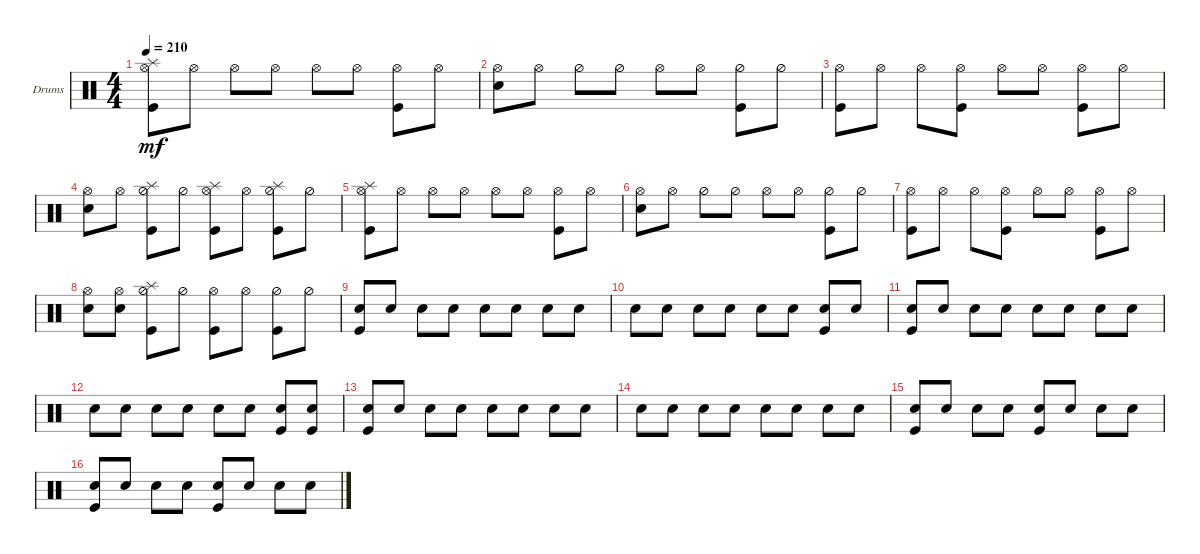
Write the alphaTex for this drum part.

\bracketExtendMode groupsimilarinstruments
\firstSystemTrackNameOrientation horizontal
\otherSystemsTrackNameOrientation horizontal
\track ("Drumkit" "Drums") {instrument percussion}
\staff {score}
\articulation defaults
\ts (4 4)
\tempo 210
\clef neutral
\ks c
("Kick (hit)" "Splash (hit)" "Hi-Hat (open)").8{dy mf} "Hi-Hat (open)".8 "Hi-Hat (open)".8 "Hi-Hat (open)".8 "Hi-Hat (open)".8 "Hi-Hat (open)".8 ("Kick (hit)" "Hi-Hat (open)").8 "Hi-Hat (open)".8 |
("Snare (hit) 2" "Hi-Hat (open)").8 "Hi-Hat (open)".8 "Hi-Hat (half)".8 "Hi-Hat (half)".8 "Hi-Hat (open)".8 "Hi-Hat (open)".8 ("Kick (hit)" "Hi-Hat (half)").8 "Hi-Hat (half)".8 |
("Kick (hit)" "Hi-Hat (open)").8 "Hi-Hat (open)".8 "Hi-Hat (open)".8 ("Kick (hit)" "Hi-Hat (open)").8 "Hi-Hat (open)".8 "Hi-Hat (open)".8 ("Kick (hit)" "Hi-Hat (open)").8 "Hi-Hat (open)".8 |
("Snare (hit) 2" "Hi-Hat (open)").8 "Hi-Hat (open)".8 ("Kick (hit)" "Splash (hit)" "Hi-Hat (half)").8 "Hi-Hat (half)".8 ("Kick (hit)" "Splash (hit)" "Hi-Hat (open)").8 "Hi-Hat (open)".8 ("Kick (hit)" "Splash (hit)" "Hi-Hat (half)").8 "Hi-Hat (half)".8 |
("Kick (hit)" "Splash (hit)" "Hi-Hat (open)").8 "Hi-Hat (open)".8 "Hi-Hat (open)".8 "Hi-Hat (open)".8 "Hi-Hat (open)".8 "Hi-Hat (open)".8 ("Kick (hit)" "Hi-Hat (open)").8 "Hi-Hat (open)".8 |
("Snare (hit) 2" "Hi-Hat (open)").8 "Hi-Hat (open)".8 "Hi-Hat (half)".8 "Hi-Hat (half)".8 "Hi-Hat (open)".8 "Hi-Hat (open)".8 ("Kick (hit)" "Hi-Hat (half)").8 "Hi-Hat (half)".8 |
("Kick (hit)" "Hi-Hat (open)").8 "Hi-Hat (open)".8 "Hi-Hat (open)".8 ("Kick (hit)" "Hi-Hat (open)").8 "Hi-Hat (open)".8 "Hi-Hat (open)".8 ("Kick (hit)" "Hi-Hat (open)").8 "Hi-Hat (open)".8 |
("Snare (hit) 2" "Hi-Hat (open)").8 ("Snare (hit) 2" "Hi-Hat (open)").8 ("Kick (hit)" "Splash (hit)" "Hi-Hat (half)").8 "Hi-Hat (half)".8 ("Kick (hit)" "Hi-Hat (open)").8 "Hi-Hat (open)".8 ("Kick (hit)" "Hi-Hat (half)").8 "Hi-Hat (half)".8 |
("Kick (hit)" "Snare (hit) 2").8 "Snare (hit) 2".8 "Snare (hit) 2".8 "Snare (hit) 2".8 "Snare (hit) 2".8 "Snare (hit) 2".8 "Snare (hit) 2".8 "Snare (hit) 2".8 |
"Snare (hit) 2".8 "Snare (hit) 2".8 "Snare (hit) 2".8 "Snare (hit) 2".8 "Snare (hit) 2".8 "Snare (hit) 2".8 ("Kick (hit)" "Snare (hit) 2").8 "Snare (hit) 2".8 |
("Kick (hit)" "Snare (hit) 2").8 "Snare (hit) 2".8 "Snare (hit) 2".8 "Snare (hit) 2".8 "Snare (hit) 2".8 "Snare (hit) 2".8 "Snare (hit) 2".8 "Snare (hit) 2".8 |
"Snare (hit) 2".8 "Snare (hit) 2".8 "Snare (hit) 2".8 "Snare (hit) 2".8 "Snare (hit) 2".8 "Snare (hit) 2".8 ("Kick (hit)" "Snare (hit) 2").8 ("Kick (hit)" "Snare (hit) 2").8 |
("Kick (hit)" "Snare (hit) 2").8 "Snare (hit) 2".8 "Snare (hit) 2".8 "Snare (hit) 2".8 "Snare (hit) 2".8 "Snare (hit) 2".8 "Snare (hit) 2".8 "Snare (hit) 2".8 |
"Snare (hit) 2".8 "Snare (hit) 2".8 "Snare (hit) 2".8 "Snare (hit) 2".8 "Snare (hit) 2".8 "Snare (hit) 2".8 "Snare (hit) 2".8 "Snare (hit) 2".8 |
("Kick (hit)" "Snare (hit) 2").8 "Snare (hit) 2".8 "Snare (hit) 2".8 "Snare (hit) 2".8 ("Kick (hit)" "Snare (hit) 2").8 "Snare (hit) 2".8 "Snare (hit) 2".8 "Snare (hit) 2".8 |
("Kick (hit)" "Snare (hit) 2").8 "Snare (hit) 2".8 "Snare (hit) 2".8 "Snare (hit) 2".8 ("Kick (hit)" "Snare (hit) 2").8 "Snare (hit) 2".8 "Snare (hit) 2".8 "Snare (hit) 2".8
